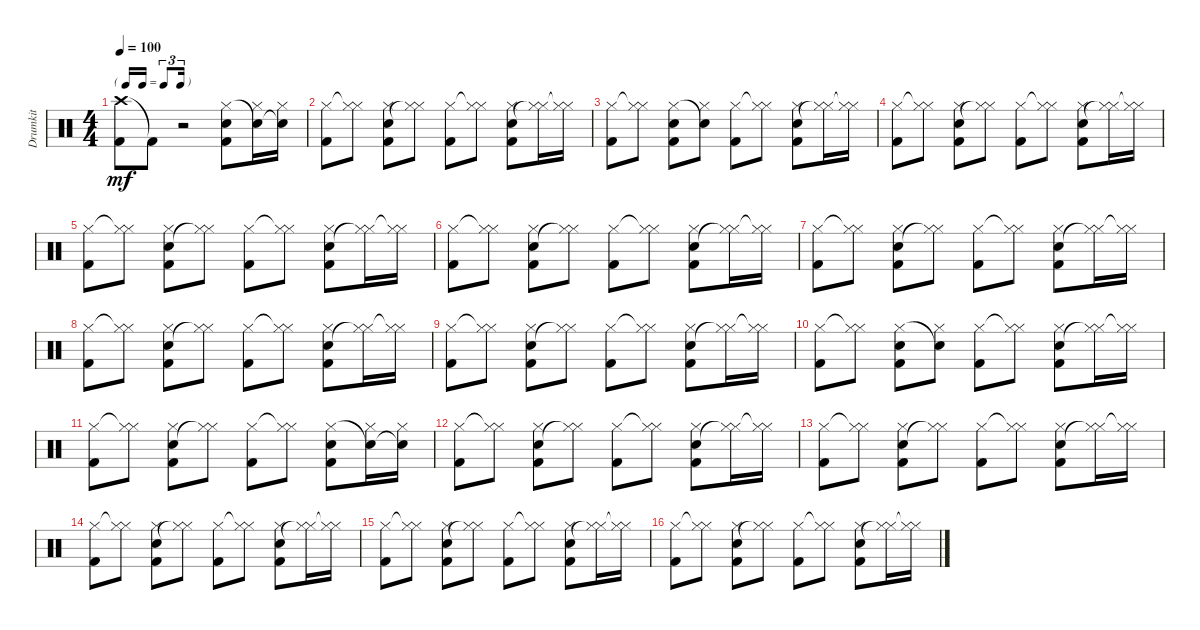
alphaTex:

\track ("Drumkit" "Drumkit") {instrument percussion}
\staff {score}
\articulation defaults
\ts (4 4)
\tf triplet16th
\tempo 100
\clef neutral
\ks c
("Crash high (hit)" "Kick (hit) 2").8{dy mf} "Kick (hit) 2"{t}.8 r.2 ("Hi-Hat (closed)" "Snare (hit) 2" "Kick (hit) 2").8 ("Snare (hit) 2"{t} "Hi-Hat (closed)").16 ("Snare (hit) 2"{t} "Hi-Hat (closed)").16 |
("Hi-Hat (closed)" "Kick (hit) 2").8 ("Hi-Hat (closed)"{t} "Hi-Hat (closed)").8 ("Snare (hit) 2" "Hi-Hat (closed)" "Kick (hit) 2").8 ("Hi-Hat (closed)"{t} "Hi-Hat (closed)").8 ("Hi-Hat (closed)" "Kick (hit) 2").8 ("Hi-Hat (closed)"{t} "Hi-Hat (closed)").8 ("Snare (hit) 2" "Hi-Hat (closed)" "Kick (hit) 2").8 ("Hi-Hat (closed)"{t} "Hi-Hat (closed)").16 ("Hi-Hat (closed)"{t} "Hi-Hat (closed)").16 |
("Hi-Hat (closed)" "Kick (hit) 2").8 ("Hi-Hat (closed)"{t} "Hi-Hat (closed)").8 ("Hi-Hat (closed)" "Snare (hit) 2" "Kick (hit) 2").8 ("Snare (hit) 2"{t} "Hi-Hat (closed)").8 ("Hi-Hat (closed)" "Kick (hit) 2").8 ("Hi-Hat (closed)"{t} "Hi-Hat (closed)").8 ("Snare (hit) 2" "Hi-Hat (closed)" "Kick (hit) 2").8 ("Hi-Hat (closed)"{t} "Hi-Hat (closed)").16 ("Hi-Hat (closed)"{t} "Hi-Hat (closed)").16 |
("Hi-Hat (closed)" "Kick (hit) 2").8 ("Hi-Hat (closed)"{t} "Hi-Hat (closed)").8 ("Snare (hit) 2" "Hi-Hat (closed)" "Kick (hit) 2").8 ("Hi-Hat (closed)"{t} "Hi-Hat (closed)").8 ("Hi-Hat (closed)" "Kick (hit) 2").8 ("Hi-Hat (closed)"{t} "Hi-Hat (closed)").8 ("Snare (hit) 2" "Hi-Hat (closed)" "Kick (hit) 2").8 ("Hi-Hat (closed)"{t} "Hi-Hat (closed)").16 ("Hi-Hat (closed)"{t} "Hi-Hat (closed)").16 |
("Hi-Hat (closed)" "Kick (hit) 2").8 ("Hi-Hat (closed)"{t} "Hi-Hat (closed)").8 ("Snare (hit) 2" "Hi-Hat (closed)" "Kick (hit) 2").8 ("Hi-Hat (closed)"{t} "Hi-Hat (closed)").8 ("Hi-Hat (closed)" "Kick (hit) 2").8 ("Hi-Hat (closed)"{t} "Hi-Hat (closed)").8 ("Snare (hit) 2" "Hi-Hat (closed)" "Kick (hit) 2").8 ("Hi-Hat (closed)"{t} "Hi-Hat (closed)").16 ("Hi-Hat (closed)"{t} "Hi-Hat (closed)").16 |
("Hi-Hat (closed)" "Kick (hit) 2").8 ("Hi-Hat (closed)"{t} "Hi-Hat (closed)").8 ("Snare (hit) 2" "Hi-Hat (closed)" "Kick (hit) 2").8 ("Hi-Hat (closed)"{t} "Hi-Hat (closed)").8 ("Hi-Hat (closed)" "Kick (hit) 2").8 ("Hi-Hat (closed)"{t} "Hi-Hat (closed)").8 ("Snare (hit) 2" "Hi-Hat (closed)" "Kick (hit) 2").8 ("Hi-Hat (closed)"{t} "Hi-Hat (closed)").16 ("Hi-Hat (closed)"{t} "Hi-Hat (closed)").16 |
("Hi-Hat (closed)" "Kick (hit) 2").8 ("Hi-Hat (closed)"{t} "Hi-Hat (closed)").8 ("Snare (hit) 2" "Hi-Hat (closed)" "Kick (hit) 2").8 ("Hi-Hat (closed)"{t} "Hi-Hat (closed)").8 ("Hi-Hat (closed)" "Kick (hit) 2").8 ("Hi-Hat (closed)"{t} "Hi-Hat (closed)").8 ("Snare (hit) 2" "Hi-Hat (closed)" "Kick (hit) 2").8 ("Hi-Hat (closed)"{t} "Hi-Hat (closed)").16 ("Hi-Hat (closed)"{t} "Hi-Hat (closed)").16 |
("Hi-Hat (closed)" "Kick (hit) 2").8 ("Hi-Hat (closed)"{t} "Hi-Hat (closed)").8 ("Snare (hit) 2" "Hi-Hat (closed)" "Kick (hit) 2").8 ("Hi-Hat (closed)"{t} "Hi-Hat (closed)").8 ("Hi-Hat (closed)" "Kick (hit) 2").8 ("Hi-Hat (closed)"{t} "Hi-Hat (closed)").8 ("Snare (hit) 2" "Hi-Hat (closed)" "Kick (hit) 2").8 ("Hi-Hat (closed)"{t} "Hi-Hat (closed)").16 ("Hi-Hat (closed)"{t} "Hi-Hat (closed)").16 |
("Hi-Hat (closed)" "Kick (hit) 2").8 ("Hi-Hat (closed)"{t} "Hi-Hat (closed)").8 ("Snare (hit) 2" "Hi-Hat (closed)" "Kick (hit) 2").8 ("Hi-Hat (closed)"{t} "Hi-Hat (closed)").8 ("Hi-Hat (closed)" "Kick (hit) 2").8 ("Hi-Hat (closed)"{t} "Hi-Hat (closed)").8 ("Snare (hit) 2" "Hi-Hat (closed)" "Kick (hit) 2").8 ("Hi-Hat (closed)"{t} "Hi-Hat (closed)").16 ("Hi-Hat (closed)"{t} "Hi-Hat (closed)").16 |
("Hi-Hat (closed)" "Kick (hit) 2").8 ("Hi-Hat (closed)"{t} "Hi-Hat (closed)").8 ("Hi-Hat (closed)" "Snare (hit) 2" "Kick (hit) 2").8 ("Snare (hit) 2"{t} "Hi-Hat (closed)").8 ("Hi-Hat (closed)" "Kick (hit) 2").8 ("Hi-Hat (closed)"{t} "Hi-Hat (closed)").8 ("Snare (hit) 2" "Hi-Hat (closed)" "Kick (hit) 2").8 ("Hi-Hat (closed)"{t} "Hi-Hat (closed)").16 ("Hi-Hat (closed)"{t} "Hi-Hat (closed)").16 |
("Hi-Hat (closed)" "Kick (hit) 2").8 ("Hi-Hat (closed)"{t} "Hi-Hat (closed)").8 ("Snare (hit) 2" "Hi-Hat (closed)" "Kick (hit) 2").8 ("Hi-Hat (closed)"{t} "Hi-Hat (closed)").8 ("Hi-Hat (closed)" "Kick (hit) 2").8 ("Hi-Hat (closed)"{t} "Hi-Hat (closed)").8 ("Hi-Hat (closed)" "Snare (hit) 2" "Kick (hit) 2").8 ("Snare (hit) 2"{t} "Hi-Hat (closed)").16 ("Snare (hit) 2"{t} "Hi-Hat (closed)").16 |
("Hi-Hat (closed)" "Kick (hit) 2").8 ("Hi-Hat (closed)"{t} "Hi-Hat (closed)").8 ("Snare (hit) 2" "Hi-Hat (closed)" "Kick (hit) 2").8 ("Hi-Hat (closed)"{t} "Hi-Hat (closed)").8 ("Hi-Hat (closed)" "Kick (hit) 2").8 ("Hi-Hat (closed)"{t} "Hi-Hat (closed)").8 ("Snare (hit) 2" "Hi-Hat (closed)" "Kick (hit) 2").8 ("Hi-Hat (closed)"{t} "Hi-Hat (closed)").16 ("Hi-Hat (closed)"{t} "Hi-Hat (closed)").16 |
("Hi-Hat (closed)" "Kick (hit) 2").8 ("Hi-Hat (closed)"{t} "Hi-Hat (closed)").8 ("Snare (hit) 2" "Hi-Hat (closed)" "Kick (hit) 2").8 ("Hi-Hat (closed)"{t} "Hi-Hat (closed)").8 ("Hi-Hat (closed)" "Kick (hit) 2").8 ("Hi-Hat (closed)"{t} "Hi-Hat (closed)").8 ("Snare (hit) 2" "Hi-Hat (closed)" "Kick (hit) 2").8 ("Hi-Hat (closed)"{t} "Hi-Hat (closed)").16 ("Hi-Hat (closed)"{t} "Hi-Hat (closed)").16 |
("Hi-Hat (closed)" "Kick (hit) 2").8 ("Hi-Hat (closed)"{t} "Hi-Hat (closed)").8 ("Snare (hit) 2" "Hi-Hat (closed)" "Kick (hit) 2").8 ("Hi-Hat (closed)"{t} "Hi-Hat (closed)").8 ("Hi-Hat (closed)" "Kick (hit) 2").8 ("Hi-Hat (closed)"{t} "Hi-Hat (closed)").8 ("Snare (hit) 2" "Hi-Hat (closed)" "Kick (hit) 2").8 ("Hi-Hat (closed)"{t} "Hi-Hat (closed)").16 ("Hi-Hat (closed)"{t} "Hi-Hat (closed)").16 |
("Hi-Hat (closed)" "Kick (hit) 2").8 ("Hi-Hat (closed)"{t} "Hi-Hat (closed)").8 ("Snare (hit) 2" "Hi-Hat (closed)" "Kick (hit) 2").8 ("Hi-Hat (closed)"{t} "Hi-Hat (closed)").8 ("Hi-Hat (closed)" "Kick (hit) 2").8 ("Hi-Hat (closed)"{t} "Hi-Hat (closed)").8 ("Snare (hit) 2" "Hi-Hat (closed)" "Kick (hit) 2").8 ("Hi-Hat (closed)"{t} "Hi-Hat (closed)").16 ("Hi-Hat (closed)"{t} "Hi-Hat (closed)").16 |
("Hi-Hat (closed)" "Kick (hit) 2").8 ("Hi-Hat (closed)"{t} "Hi-Hat (closed)").8 ("Snare (hit) 2" "Hi-Hat (closed)" "Kick (hit) 2").8 ("Hi-Hat (closed)"{t} "Hi-Hat (closed)").8 ("Hi-Hat (closed)" "Kick (hit) 2").8 ("Hi-Hat (closed)"{t} "Hi-Hat (closed)").8 ("Snare (hit) 2" "Hi-Hat (closed)" "Kick (hit) 2").8 ("Hi-Hat (closed)"{t} "Hi-Hat (closed)").16 ("Hi-Hat (closed)"{t} "Hi-Hat (closed)").16
